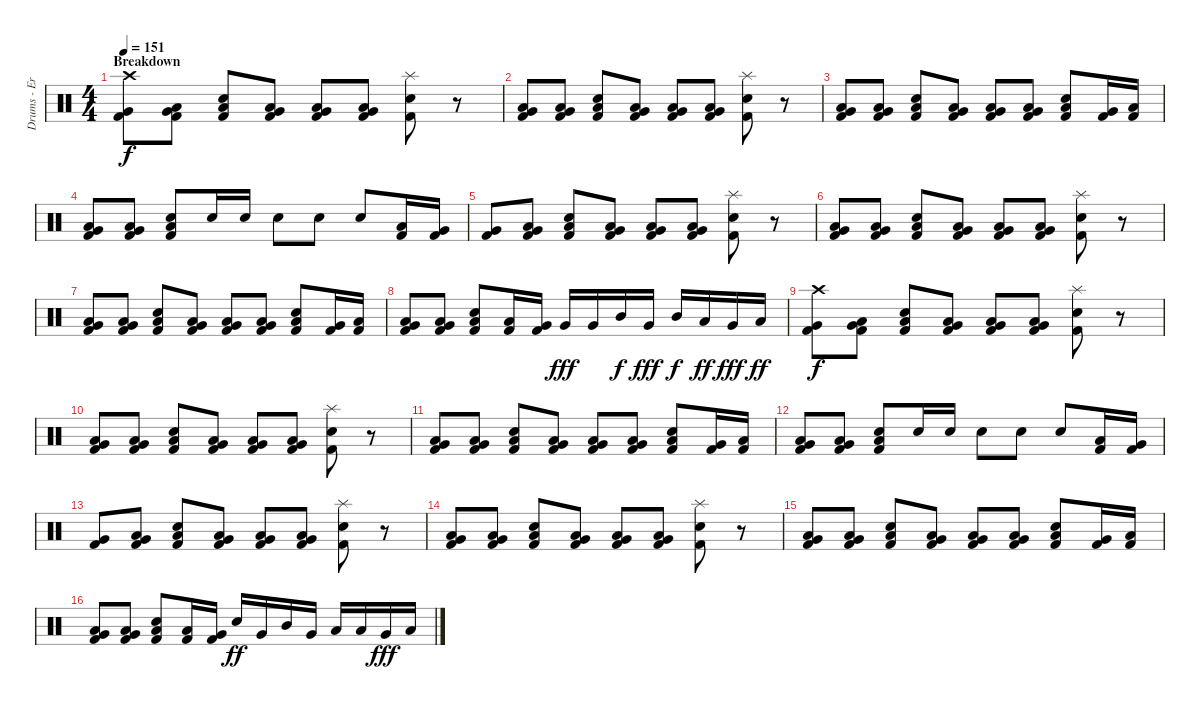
\track ("Drums - Erik Sandin" "Drums - Er") {instrument percussion}
\staff {score}
\articulation defaults
\ts (4 4)
\section ("" "Breakdown")
\tempo 151
\clef neutral
\ks c
("Crash high (hit)" "Very Low Tom (hit)" "Kick (hit) 2").8{dy f volume 14} ("Low Tom (hit)" "Very Low Tom (hit)" "Kick (hit) 2").8 ("Low Tom (hit)" "Electric Snare (hit)" "Kick (hit) 2").8 ("Low Tom (hit)" "Very Low Tom (hit)" "Kick (hit) 2").8 ("Low Tom (hit)" "Very Low Tom (hit)" "Kick (hit) 2").8 ("Low Tom (hit)" "Very Low Tom (hit)" "Kick (hit) 2").8 ("Splash (hit)" "Electric Snare (hit)" "Kick (hit) 2").8 r.8 |
("Low Tom (hit)" "Very Low Tom (hit)" "Kick (hit) 2").8 ("Low Tom (hit)" "Very Low Tom (hit)" "Kick (hit) 2").8 ("Low Tom (hit)" "Electric Snare (hit)" "Kick (hit) 2").8 ("Low Tom (hit)" "Very Low Tom (hit)" "Kick (hit) 2").8 ("Low Tom (hit)" "Very Low Tom (hit)" "Kick (hit) 2").8 ("Low Tom (hit)" "Very Low Tom (hit)" "Kick (hit) 2").8 ("Splash (hit)" "Electric Snare (hit)" "Kick (hit) 2").8 r.8 |
("Low Tom (hit)" "Very Low Tom (hit)" "Kick (hit) 2").8 ("Low Tom (hit)" "Very Low Tom (hit)" "Kick (hit) 2").8 ("Low Tom (hit)" "Electric Snare (hit)" "Kick (hit) 2").8 ("Low Floor Tom (hit)" "Very Low Tom (hit)" "Kick (hit) 2").8 ("Low Tom (hit)" "Very Low Tom (hit)" "Kick (hit) 2").8 ("Low Tom (hit)" "Very Low Tom (hit)" "Kick (hit) 2").8 ("Low Tom (hit)" "Electric Snare (hit)" "Kick (hit) 2").8 ("Very Low Tom (hit)" "Kick (hit) 2").16 ("Low Floor Tom (hit)" "Kick (hit) 2").16 |
("Low Tom (hit)" "Very Low Tom (hit)" "Kick (hit) 2").8 ("Low Tom (hit)" "Very Low Tom (hit)" "Kick (hit) 2").8 ("Low Tom (hit)" "Electric Snare (hit)" "Kick (hit) 2").8 "Electric Snare (hit)".16 "Electric Snare (hit)".16 "Electric Snare (hit)".8 "Electric Snare (hit)".8 "Electric Snare (hit)".8 ("Low Tom (hit)" "Kick (hit) 2").16 ("Very Low Tom (hit)" "Kick (hit) 2").16 |
("Very Low Tom (hit)" "Kick (hit) 2").8 ("Low Tom (hit)" "Very Low Tom (hit)" "Kick (hit) 2").8 ("Low Tom (hit)" "Electric Snare (hit)" "Kick (hit) 2").8 ("Low Tom (hit)" "Very Low Tom (hit)" "Kick (hit) 2").8 ("Low Tom (hit)" "Very Low Tom (hit)" "Kick (hit) 2").8 ("Low Tom (hit)" "Very Low Tom (hit)" "Kick (hit) 2").8 ("Splash (hit)" "Electric Snare (hit)" "Kick (hit) 2").8 r.8 |
("Low Tom (hit)" "Very Low Tom (hit)" "Kick (hit) 2").8 ("Low Tom (hit)" "Very Low Tom (hit)" "Kick (hit) 2").8 ("Low Tom (hit)" "Electric Snare (hit)" "Kick (hit) 2").8 ("Low Tom (hit)" "Very Low Tom (hit)" "Kick (hit) 2").8 ("Low Tom (hit)" "Very Low Tom (hit)" "Kick (hit) 2").8 ("Low Tom (hit)" "Very Low Tom (hit)" "Kick (hit) 2").8 ("Splash (hit)" "Electric Snare (hit)" "Kick (hit) 2").8 r.8 |
("Low Tom (hit)" "Very Low Tom (hit)" "Kick (hit) 2").8 ("Low Tom (hit)" "Very Low Tom (hit)" "Kick (hit) 2").8 ("Low Tom (hit)" "Electric Snare (hit)" "Kick (hit) 2").8 ("Low Floor Tom (hit)" "Very Low Tom (hit)" "Kick (hit) 2").8 ("Low Tom (hit)" "Very Low Tom (hit)" "Kick (hit) 2").8 ("Low Tom (hit)" "Very Low Tom (hit)" "Kick (hit) 2").8 ("Low Tom (hit)" "Electric Snare (hit)" "Kick (hit) 2").8 ("Very Low Tom (hit)" "Kick (hit) 2").16 ("Low Floor Tom (hit)" "Kick (hit) 2").16 |
("Low Tom (hit)" "Very Low Tom (hit)" "Kick (hit) 2").8 ("Low Tom (hit)" "Very Low Tom (hit)" "Kick (hit) 2").8 ("Low Tom (hit)" "Electric Snare (hit)" "Kick (hit) 2").8 ("Low Tom (hit)" "Kick (hit) 2").16 ("Very Low Tom (hit)" "Kick (hit) 2").16 "Very Low Tom (hit)".16{dy fff} "Very Low Tom (hit)".16 "Mid Tom (hit)".16{dy f} "Very Low Tom (hit)".16{dy fff} "Mid Tom (hit)".16{dy f} "Low Tom (hit)".16{dy ff} "Very Low Tom (hit)".16{dy fff} "Low Floor Tom (hit)".16{dy ff} |
("Crash high (hit)" "Very Low Tom (hit)" "Kick (hit) 2").8{dy f} ("Low Tom (hit)" "Very Low Tom (hit)" "Kick (hit) 2").8 ("Low Tom (hit)" "Electric Snare (hit)" "Kick (hit) 2").8 ("Low Tom (hit)" "Very Low Tom (hit)" "Kick (hit) 2").8 ("Low Tom (hit)" "Very Low Tom (hit)" "Kick (hit) 2").8 ("Low Tom (hit)" "Very Low Tom (hit)" "Kick (hit) 2").8 ("Splash (hit)" "Electric Snare (hit)" "Kick (hit) 2").8 r.8 |
("Low Tom (hit)" "Very Low Tom (hit)" "Kick (hit) 2").8 ("Low Tom (hit)" "Very Low Tom (hit)" "Kick (hit) 2").8 ("Low Tom (hit)" "Electric Snare (hit)" "Kick (hit) 2").8 ("Low Tom (hit)" "Very Low Tom (hit)" "Kick (hit) 2").8 ("Low Tom (hit)" "Very Low Tom (hit)" "Kick (hit) 2").8 ("Low Tom (hit)" "Very Low Tom (hit)" "Kick (hit) 2").8 ("Splash (hit)" "Electric Snare (hit)" "Kick (hit) 2").8 r.8 |
("Low Tom (hit)" "Very Low Tom (hit)" "Kick (hit) 2").8 ("Low Tom (hit)" "Very Low Tom (hit)" "Kick (hit) 2").8 ("Low Tom (hit)" "Electric Snare (hit)" "Kick (hit) 2").8 ("Low Floor Tom (hit)" "Very Low Tom (hit)" "Kick (hit) 2").8 ("Low Tom (hit)" "Very Low Tom (hit)" "Kick (hit) 2").8 ("Low Tom (hit)" "Very Low Tom (hit)" "Kick (hit) 2").8 ("Low Tom (hit)" "Electric Snare (hit)" "Kick (hit) 2").8 ("Very Low Tom (hit)" "Kick (hit) 2").16 ("Low Floor Tom (hit)" "Kick (hit) 2").16 |
("Low Tom (hit)" "Very Low Tom (hit)" "Kick (hit) 2").8 ("Low Tom (hit)" "Very Low Tom (hit)" "Kick (hit) 2").8 ("Low Tom (hit)" "Electric Snare (hit)" "Kick (hit) 2").8 "Electric Snare (hit)".16 "Electric Snare (hit)".16 "Electric Snare (hit)".8 "Electric Snare (hit)".8 "Electric Snare (hit)".8 ("Low Tom (hit)" "Kick (hit) 2").16 ("Very Low Tom (hit)" "Kick (hit) 2").16 |
("Very Low Tom (hit)" "Kick (hit) 2").8 ("Low Tom (hit)" "Very Low Tom (hit)" "Kick (hit) 2").8 ("Low Tom (hit)" "Electric Snare (hit)" "Kick (hit) 2").8 ("Low Tom (hit)" "Very Low Tom (hit)" "Kick (hit) 2").8 ("Low Tom (hit)" "Very Low Tom (hit)" "Kick (hit) 2").8 ("Low Tom (hit)" "Very Low Tom (hit)" "Kick (hit) 2").8 ("Splash (hit)" "Electric Snare (hit)" "Kick (hit) 2").8 r.8 |
("Low Tom (hit)" "Very Low Tom (hit)" "Kick (hit) 2").8 ("Low Tom (hit)" "Very Low Tom (hit)" "Kick (hit) 2").8 ("Low Tom (hit)" "Electric Snare (hit)" "Kick (hit) 2").8 ("Low Tom (hit)" "Very Low Tom (hit)" "Kick (hit) 2").8 ("Low Tom (hit)" "Very Low Tom (hit)" "Kick (hit) 2").8 ("Low Tom (hit)" "Very Low Tom (hit)" "Kick (hit) 2").8 ("Splash (hit)" "Electric Snare (hit)" "Kick (hit) 2").8 r.8 |
("Low Tom (hit)" "Very Low Tom (hit)" "Kick (hit) 2").8 ("Low Tom (hit)" "Very Low Tom (hit)" "Kick (hit) 2").8 ("Low Tom (hit)" "Electric Snare (hit)" "Kick (hit) 2").8 ("Low Floor Tom (hit)" "Very Low Tom (hit)" "Kick (hit) 2").8 ("Low Tom (hit)" "Very Low Tom (hit)" "Kick (hit) 2").8 ("Low Tom (hit)" "Very Low Tom (hit)" "Kick (hit) 2").8 ("Low Tom (hit)" "Electric Snare (hit)" "Kick (hit) 2").8 ("Very Low Tom (hit)" "Kick (hit) 2").16 ("Low Floor Tom (hit)" "Kick (hit) 2").16 |
("Low Tom (hit)" "Very Low Tom (hit)" "Kick (hit) 2").8 ("Low Tom (hit)" "Very Low Tom (hit)" "Kick (hit) 2").8 ("Low Tom (hit)" "Electric Snare (hit)" "Kick (hit) 2").8 ("Low Tom (hit)" "Kick (hit) 2").16 ("Very Low Tom (hit)" "Kick (hit) 2").16 "Electric Snare (hit)".16{dy ff} "Very Low Tom (hit)".16 "Mid Tom (hit)".16 "Very Low Tom (hit)".16 "Low Tom (hit)".16 "Low Tom (hit)".16 "Very Low Tom (hit)".16{dy fff} "Low Floor Tom (hit)".16
